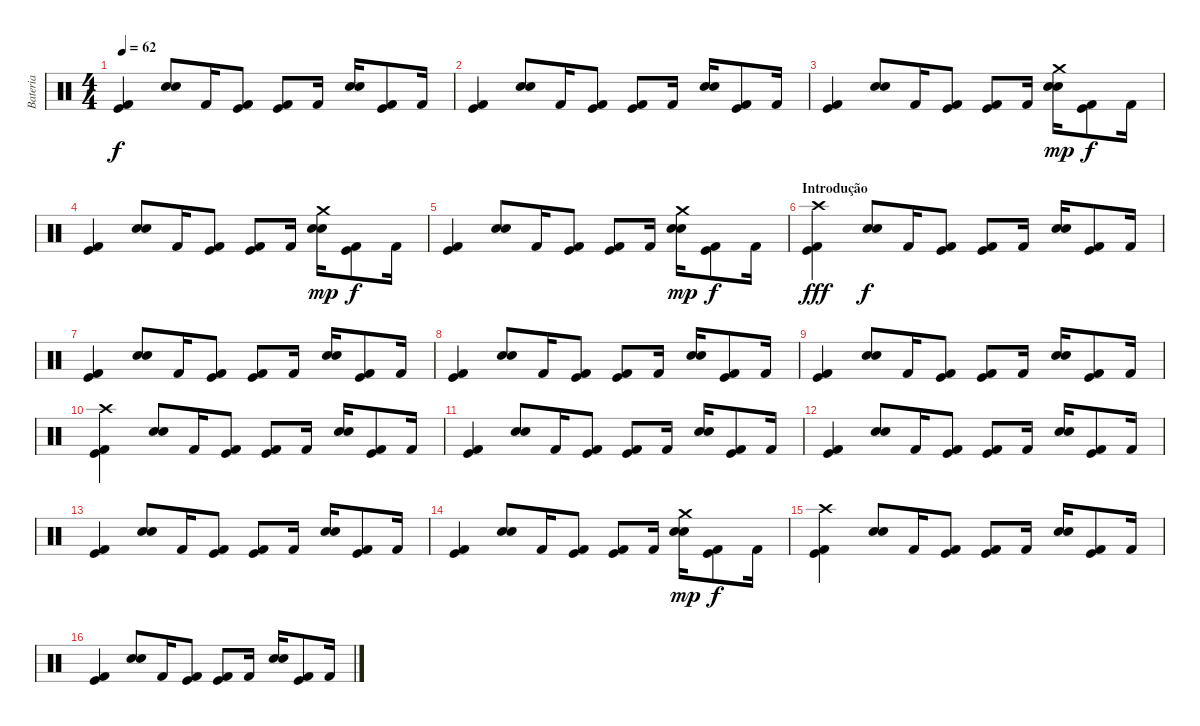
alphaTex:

\track ("Bateria" "Bateria") {instrument percussion}
\staff {score}
\articulation defaults
\ts (4 4)
\tempo 62
\clef neutral
\ks c
("Kick (hit)" "Kick (hit) 2").4{dy f} ("Snare (hit) 2" "Electric Snare (hit)").8 "Kick (hit) 2".16 ("Kick (hit)" "Kick (hit) 2").8 ("Kick (hit)" "Kick (hit) 2").8 "Kick (hit) 2".16 ("Snare (hit) 2" "Electric Snare (hit)").16 ("Kick (hit)" "Kick (hit) 2").8 "Kick (hit) 2".16 |
("Kick (hit)" "Kick (hit) 2").4 ("Snare (hit) 2" "Electric Snare (hit)").8 "Kick (hit) 2".16 ("Kick (hit)" "Kick (hit) 2").8 ("Kick (hit)" "Kick (hit) 2").8 "Kick (hit) 2".16 ("Snare (hit) 2" "Electric Snare (hit)").16 ("Kick (hit)" "Kick (hit) 2").8 "Kick (hit) 2".16 |
("Kick (hit)" "Kick (hit) 2").4 ("Snare (hit) 2" "Electric Snare (hit)").8 "Kick (hit) 2".16 ("Kick (hit)" "Kick (hit) 2").8 ("Kick (hit)" "Kick (hit) 2").8 "Kick (hit) 2".16 ("Crash medium (hit)" "Snare (hit) 2" "Electric Snare (hit)").16{dy mp} ("Kick (hit)" "Kick (hit) 2").8{dy f} "Kick (hit) 2".16 |
("Kick (hit)" "Kick (hit) 2").4 ("Snare (hit) 2" "Electric Snare (hit)").8 "Kick (hit) 2".16 ("Kick (hit)" "Kick (hit) 2").8 ("Kick (hit)" "Kick (hit) 2").8 "Kick (hit) 2".16 ("Crash medium (hit)" "Snare (hit) 2" "Electric Snare (hit)").16{dy mp} ("Kick (hit)" "Kick (hit) 2").8{dy f} "Kick (hit) 2".16 |
("Kick (hit)" "Kick (hit) 2").4 ("Snare (hit) 2" "Electric Snare (hit)").8 "Kick (hit) 2".16 ("Kick (hit)" "Kick (hit) 2").8 ("Kick (hit)" "Kick (hit) 2").8 "Kick (hit) 2".16 ("Crash medium (hit)" "Snare (hit) 2" "Electric Snare (hit)").16{dy mp} ("Kick (hit)" "Kick (hit) 2").8{dy f} "Kick (hit) 2".16 |
\section ("" "Introdução")
("Crash high (hit)" "Kick (hit)" "Kick (hit) 2").4{dy fff} ("Snare (hit) 2" "Electric Snare (hit)").8{dy f} "Kick (hit) 2".16 ("Kick (hit)" "Kick (hit) 2").8 ("Kick (hit)" "Kick (hit) 2").8 "Kick (hit) 2".16 ("Snare (hit) 2" "Electric Snare (hit)").16 ("Kick (hit)" "Kick (hit) 2").8 "Kick (hit) 2".16 |
("Kick (hit)" "Kick (hit) 2").4 ("Snare (hit) 2" "Electric Snare (hit)").8 "Kick (hit) 2".16 ("Kick (hit)" "Kick (hit) 2").8 ("Kick (hit)" "Kick (hit) 2").8 "Kick (hit) 2".16 ("Snare (hit) 2" "Electric Snare (hit)").16 ("Kick (hit)" "Kick (hit) 2").8 "Kick (hit) 2".16 |
("Kick (hit)" "Kick (hit) 2").4 ("Snare (hit) 2" "Electric Snare (hit)").8 "Kick (hit) 2".16 ("Kick (hit)" "Kick (hit) 2").8 ("Kick (hit)" "Kick (hit) 2").8 "Kick (hit) 2".16 ("Snare (hit) 2" "Electric Snare (hit)").16 ("Kick (hit)" "Kick (hit) 2").8 "Kick (hit) 2".16 |
("Kick (hit)" "Kick (hit) 2").4 ("Snare (hit) 2" "Electric Snare (hit)").8 "Kick (hit) 2".16 ("Kick (hit)" "Kick (hit) 2").8 ("Kick (hit)" "Kick (hit) 2").8 "Kick (hit) 2".16 ("Snare (hit) 2" "Electric Snare (hit)").16 ("Kick (hit)" "Kick (hit) 2").8 "Kick (hit) 2".16 |
("Crash high (hit)" "Kick (hit)" "Kick (hit) 2").4 ("Snare (hit) 2" "Electric Snare (hit)").8 "Kick (hit) 2".16 ("Kick (hit)" "Kick (hit) 2").8 ("Kick (hit)" "Kick (hit) 2").8 "Kick (hit) 2".16 ("Snare (hit) 2" "Electric Snare (hit)").16 ("Kick (hit)" "Kick (hit) 2").8 "Kick (hit) 2".16 |
("Kick (hit)" "Kick (hit) 2").4 ("Snare (hit) 2" "Electric Snare (hit)").8 "Kick (hit) 2".16 ("Kick (hit)" "Kick (hit) 2").8 ("Kick (hit)" "Kick (hit) 2").8 "Kick (hit) 2".16 ("Snare (hit) 2" "Electric Snare (hit)").16 ("Kick (hit)" "Kick (hit) 2").8 "Kick (hit) 2".16 |
("Kick (hit)" "Kick (hit) 2").4 ("Snare (hit) 2" "Electric Snare (hit)").8 "Kick (hit) 2".16 ("Kick (hit)" "Kick (hit) 2").8 ("Kick (hit)" "Kick (hit) 2").8 "Kick (hit) 2".16 ("Snare (hit) 2" "Electric Snare (hit)").16 ("Kick (hit)" "Kick (hit) 2").8 "Kick (hit) 2".16 |
("Kick (hit)" "Kick (hit) 2").4 ("Snare (hit) 2" "Electric Snare (hit)").8 "Kick (hit) 2".16 ("Kick (hit)" "Kick (hit) 2").8 ("Kick (hit)" "Kick (hit) 2").8 "Kick (hit) 2".16 ("Snare (hit) 2" "Electric Snare (hit)").16 ("Kick (hit)" "Kick (hit) 2").8 "Kick (hit) 2".16 |
("Kick (hit)" "Kick (hit) 2").4 ("Snare (hit) 2" "Electric Snare (hit)").8 "Kick (hit) 2".16 ("Kick (hit)" "Kick (hit) 2").8 ("Kick (hit)" "Kick (hit) 2").8 "Kick (hit) 2".16 ("Crash medium (hit)" "Snare (hit) 2" "Electric Snare (hit)").16{dy mp} ("Kick (hit)" "Kick (hit) 2").8{dy f} "Kick (hit) 2".16 |
("Crash high (hit)" "Kick (hit)" "Kick (hit) 2").4 ("Snare (hit) 2" "Electric Snare (hit)").8 "Kick (hit) 2".16 ("Kick (hit)" "Kick (hit) 2").8 ("Kick (hit)" "Kick (hit) 2").8 "Kick (hit) 2".16 ("Snare (hit) 2" "Electric Snare (hit)").16 ("Kick (hit)" "Kick (hit) 2").8 "Kick (hit) 2".16 |
("Kick (hit)" "Kick (hit) 2").4 ("Snare (hit) 2" "Electric Snare (hit)").8 "Kick (hit) 2".16 ("Kick (hit)" "Kick (hit) 2").8 ("Kick (hit)" "Kick (hit) 2").8 "Kick (hit) 2".16 ("Snare (hit) 2" "Electric Snare (hit)").16 ("Kick (hit)" "Kick (hit) 2").8 "Kick (hit) 2".16
